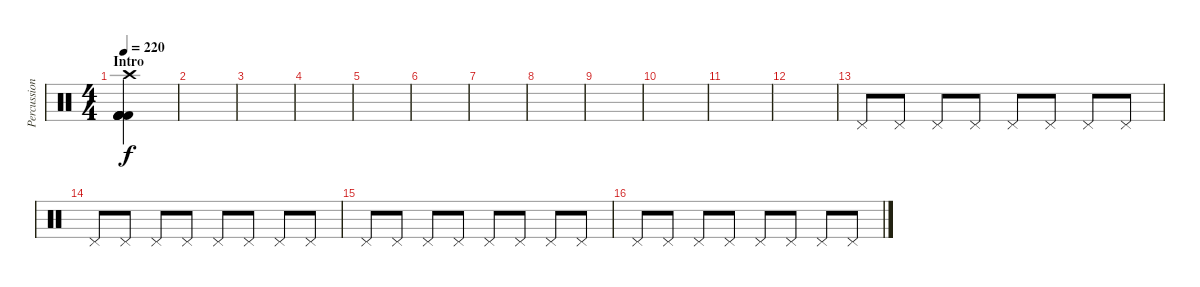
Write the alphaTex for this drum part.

\track ("Percussion" "Percussion") {instrument percussion}
\staff {score}
\articulation defaults
\ts (4 4)
\section ("" "Intro")
\tempo 220
\clef neutral
\ks c
("Kick (hit) 2" "Kick (hit) 2" "Crash high (hit)" "Kick (hit) 2" "Kick (hit) 2" "Kick (hit) 2").4{dy f} |
|
|
|
|
|
|
|
|
|
|
|
"Pedal Hi-Hat (hit)".8 "Pedal Hi-Hat (hit)".8 "Pedal Hi-Hat (hit)".8 "Pedal Hi-Hat (hit)".8 "Pedal Hi-Hat (hit)".8 "Pedal Hi-Hat (hit)".8 "Pedal Hi-Hat (hit)".8 "Pedal Hi-Hat (hit)".8 |
"Pedal Hi-Hat (hit)".8 "Pedal Hi-Hat (hit)".8 "Pedal Hi-Hat (hit)".8 "Pedal Hi-Hat (hit)".8 "Pedal Hi-Hat (hit)".8 "Pedal Hi-Hat (hit)".8 "Pedal Hi-Hat (hit)".8 "Pedal Hi-Hat (hit)".8 |
"Pedal Hi-Hat (hit)".8 "Pedal Hi-Hat (hit)".8 "Pedal Hi-Hat (hit)".8 "Pedal Hi-Hat (hit)".8 "Pedal Hi-Hat (hit)".8 "Pedal Hi-Hat (hit)".8 "Pedal Hi-Hat (hit)".8 "Pedal Hi-Hat (hit)".8 |
"Pedal Hi-Hat (hit)".8 "Pedal Hi-Hat (hit)".8 "Pedal Hi-Hat (hit)".8 "Pedal Hi-Hat (hit)".8 "Pedal Hi-Hat (hit)".8 "Pedal Hi-Hat (hit)".8 "Pedal Hi-Hat (hit)".8 "Pedal Hi-Hat (hit)".8
